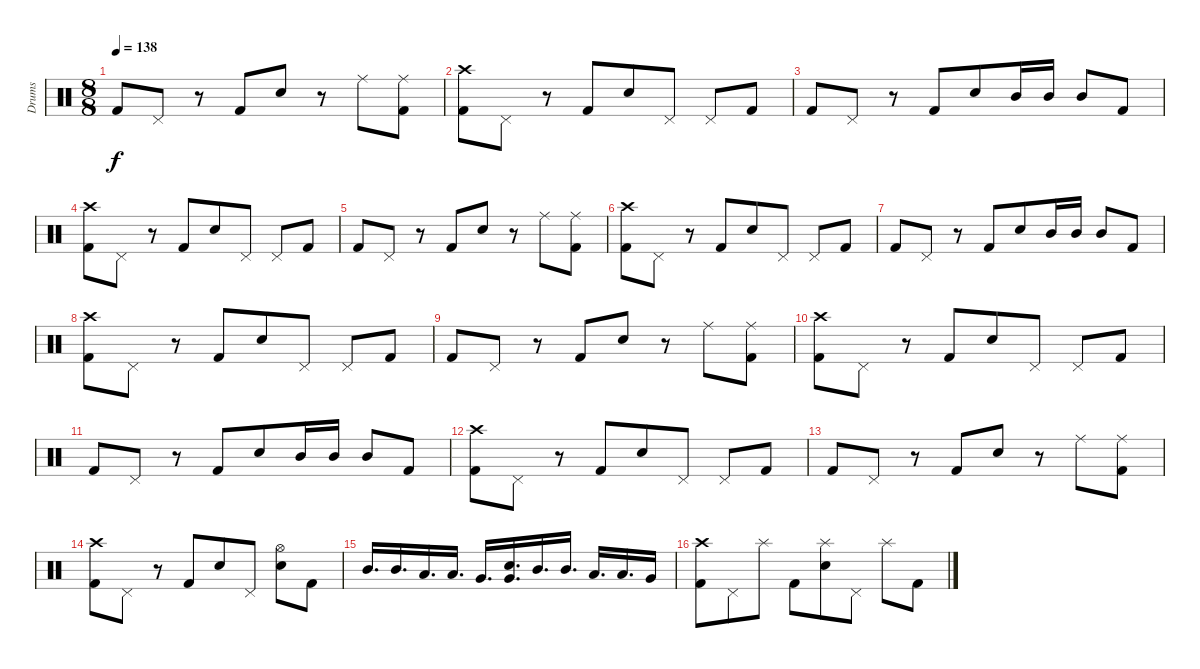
\track ("Drums" "Drums") {instrument percussion}
\staff {score}
\articulation defaults
\ts (8 8)
\tempo 138
\clef neutral
\ks c "Kick (hit) 2".8{dy f} "Pedal Hi-Hat (hit)".8
r.8 "Kick (hit) 2".8 "Snare (hit) 2".8 r.8 "Ride (middle)".8 ("Ride (middle)" "Kick (hit) 2").8 |
("Crash high (hit)" "Kick (hit) 2").8 "Pedal Hi-Hat (hit)".8 r.8 "Kick (hit) 2".8 "Snare (hit) 2".8 "Pedal Hi-Hat (hit)".8 "Pedal Hi-Hat (hit)".8 "Kick (hit) 2".8 |
"Kick (hit) 2".8 "Pedal Hi-Hat (hit)".8 r.8 "Kick (hit) 2".8 "Snare (hit) 2".8 "Mid Tom (hit)".16 "Mid Tom (hit)".16 "Mid Tom (hit)".8 "Kick (hit) 2".8 |
("Crash high (hit)" "Kick (hit) 2").8 "Pedal Hi-Hat (hit)".8 r.8 "Kick (hit) 2".8 "Snare (hit) 2".8 "Pedal Hi-Hat (hit)".8 "Pedal Hi-Hat (hit)".8 "Kick (hit) 2".8 |
"Kick (hit) 2".8 "Pedal Hi-Hat (hit)".8 r.8 "Kick (hit) 2".8 "Snare (hit) 2".8 r.8 "Ride (middle)".8 ("Ride (middle)" "Kick (hit) 2").8 |
("Crash high (hit)" "Kick (hit) 2").8 "Pedal Hi-Hat (hit)".8 r.8 "Kick (hit) 2".8 "Snare (hit) 2".8 "Pedal Hi-Hat (hit)".8 "Pedal Hi-Hat (hit)".8 "Kick (hit) 2".8 |
"Kick (hit) 2".8 "Pedal Hi-Hat (hit)".8 r.8 "Kick (hit) 2".8 "Snare (hit) 2".8 "Mid Tom (hit)".16 "Mid Tom (hit)".16 "Mid Tom (hit)".8 "Kick (hit) 2".8 |
("Crash high (hit)" "Kick (hit) 2").8 "Pedal Hi-Hat (hit)".8 r.8 "Kick (hit) 2".8 "Snare (hit) 2".8 "Pedal Hi-Hat (hit)".8 "Pedal Hi-Hat (hit)".8 "Kick (hit) 2".8 |
"Kick (hit) 2".8 "Pedal Hi-Hat (hit)".8 r.8 "Kick (hit) 2".8 "Snare (hit) 2".8 r.8 "Ride (middle)".8 ("Ride (middle)" "Kick (hit) 2").8 |
("Crash high (hit)" "Kick (hit) 2").8 "Pedal Hi-Hat (hit)".8 r.8 "Kick (hit) 2".8 "Snare (hit) 2".8 "Pedal Hi-Hat (hit)".8 "Pedal Hi-Hat (hit)".8 "Kick (hit) 2".8 |
"Kick (hit) 2".8 "Pedal Hi-Hat (hit)".8 r.8 "Kick (hit) 2".8 "Snare (hit) 2".8 "Mid Tom (hit)".16 "Mid Tom (hit)".16 "Mid Tom (hit)".8 "Kick (hit) 2".8 |
("Crash high (hit)" "Kick (hit) 2").8 "Pedal Hi-Hat (hit)".8 r.8 "Kick (hit) 2".8 "Snare (hit) 2".8 "Pedal Hi-Hat (hit)".8 "Pedal Hi-Hat (hit)".8 "Kick (hit) 2".8 |
"Kick (hit) 2".8 "Pedal Hi-Hat (hit)".8 r.8 "Kick (hit) 2".8 "Snare (hit) 2".8 r.8 "Ride (middle)".8 ("Ride (middle)" "Kick (hit) 2").8 |
("Crash high (hit)" "Kick (hit) 2").8 "Pedal Hi-Hat (hit)".8 r.8 "Kick (hit) 2".8 "Snare (hit) 2".8 "Pedal Hi-Hat (hit)".8 ("Hi-Hat (open)" "Snare (hit) 2").8 "Kick (hit) 2".8 |
"Mid Tom (hit)".16{d} "Mid Tom (hit)".16{d} "Low Tom (hit)".16{d} "Low Tom (hit)".16{d} "Very Low Tom (hit)".16{d} ("Snare (hit) 2" "Very Low Tom (hit)").16{d} "Mid Tom (hit)".16{d} "Mid Tom (hit)".16{d} "Low Tom (hit)".16{d} "Low Tom (hit)".16{d} "Very Low Tom (hit)".16 |
("Crash high (hit)" "Kick (hit) 2").8 "Pedal Hi-Hat (hit)".8 "Splash (hit)".8 "Kick (hit) 2".8 ("Splash (hit)" "Snare (hit) 2").8 "Pedal Hi-Hat (hit)".8 "Splash (hit)".8 "Kick (hit) 2".8
